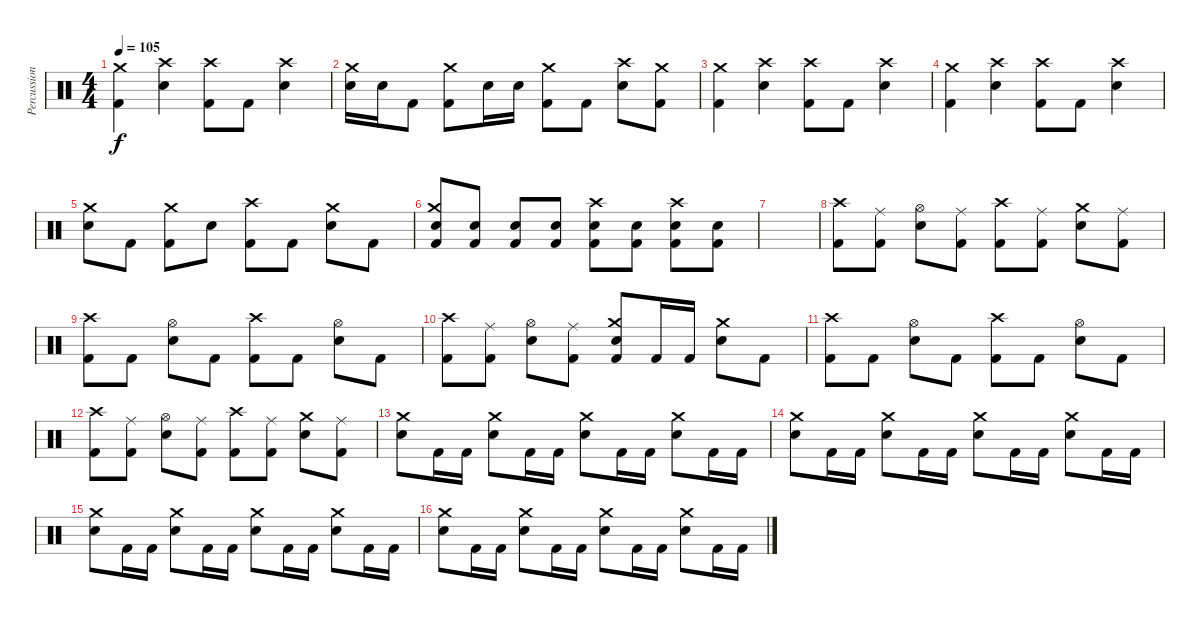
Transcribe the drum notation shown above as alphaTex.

\track ("Percussion" "Percussion") {instrument percussion}
\staff {score}
\articulation defaults
\ts (4 4)
\tempo 105
\clef neutral
\ks c
("Kick (hit) 2" "Crash medium (hit)").4{dy f} ("Electric Snare (hit)" "Crash high (hit)").4 ("Kick (hit) 2" "Crash high (hit)").8 "Kick (hit) 2".8 ("Electric Snare (hit)" "Crash high (hit)").4 |
("Electric Snare (hit)" "Crash medium (hit)").16 "Electric Snare (hit)".16 "Kick (hit) 2".8 ("Kick (hit) 2" "Crash medium (hit)").8 "Electric Snare (hit)".16 "Electric Snare (hit)".16 ("Kick (hit) 2" "Crash medium (hit)").8 "Kick (hit) 2".8 ("Electric Snare (hit)" "Crash high (hit)").8 ("Kick (hit) 2" "Crash medium (hit)").8 |
("Kick (hit) 2" "Crash medium (hit)").4 ("Electric Snare (hit)" "Crash high (hit)").4 ("Kick (hit) 2" "Crash high (hit)").8 "Kick (hit) 2".8 ("Electric Snare (hit)" "Crash high (hit)").4 |
("Kick (hit) 2" "Crash medium (hit)").4 ("Electric Snare (hit)" "Crash high (hit)").4 ("Kick (hit) 2" "Crash high (hit)").8 "Kick (hit) 2".8 ("Electric Snare (hit)" "Crash high (hit)").4 |
("Electric Snare (hit)" "Crash medium (hit)").8 "Kick (hit) 2".8 ("Kick (hit) 2" "Crash medium (hit)").8 "Electric Snare (hit)".8 ("Kick (hit) 2" "Crash high (hit)").8 "Kick (hit) 2".8 ("Electric Snare (hit)" "Crash medium (hit)").8 "Kick (hit) 2".8 |
("Kick (hit) 2" "Electric Snare (hit)" "Crash medium (hit)").8 ("Kick (hit) 2" "Electric Snare (hit)").8 ("Kick (hit) 2" "Electric Snare (hit)").8 ("Kick (hit) 2" "Electric Snare (hit)").8 ("Kick (hit) 2" "Electric Snare (hit)" "Crash high (hit)").8 ("Kick (hit) 2" "Electric Snare (hit)").8 ("Kick (hit) 2" "Electric Snare (hit)" "Crash high (hit)").8 ("Kick (hit) 2" "Electric Snare (hit)").8 |
|
("Kick (hit) 2" "Crash high (hit)").8 ("Kick (hit) 2" "Ride (middle)").8 ("Electric Snare (hit)" "Hi-Hat (open)").8 ("Kick (hit) 2" "Ride (middle)").8 ("Kick (hit) 2" "Crash high (hit)").8 ("Kick (hit) 2" "Ride (middle)").8 ("Electric Snare (hit)" "Crash medium (hit)").8 ("Kick (hit) 2" "Ride (middle)").8 |
("Kick (hit) 2" "Crash high (hit)").8 "Kick (hit) 2".8 ("Electric Snare (hit)" "Hi-Hat (open)").8 "Kick (hit) 2".8 ("Kick (hit) 2" "Crash high (hit)").8 "Kick (hit) 2".8 ("Electric Snare (hit)" "Hi-Hat (open)").8 "Kick (hit) 2".8 |
("Kick (hit) 2" "Crash high (hit)").8 ("Kick (hit) 2" "Ride (middle)").8 ("Electric Snare (hit)" "Hi-Hat (open)").8 ("Kick (hit) 2" "Ride (middle)").8 ("Kick (hit) 2" "Electric Snare (hit)" "Crash medium (hit)").8 "Kick (hit) 2".16 "Kick (hit) 2".16 ("Electric Snare (hit)" "Crash medium (hit)").8 "Kick (hit) 2".8 |
("Kick (hit) 2" "Crash high (hit)").8 "Kick (hit) 2".8 ("Electric Snare (hit)" "Hi-Hat (open)").8 "Kick (hit) 2".8 ("Kick (hit) 2" "Crash high (hit)").8 "Kick (hit) 2".8 ("Electric Snare (hit)" "Hi-Hat (open)").8 "Kick (hit) 2".8 |
("Kick (hit) 2" "Crash high (hit)").8 ("Kick (hit) 2" "Ride (middle)").8 ("Electric Snare (hit)" "Hi-Hat (open)").8 ("Kick (hit) 2" "Ride (middle)").8 ("Kick (hit) 2" "Crash high (hit)").8 ("Kick (hit) 2" "Ride (middle)").8 ("Electric Snare (hit)" "Crash medium (hit)").8 ("Kick (hit) 2" "Ride (middle)").8 |
("Electric Snare (hit)" "Crash medium (hit)").8 "Kick (hit) 2".16 "Kick (hit) 2".16 ("Electric Snare (hit)" "Crash medium (hit)").8 "Kick (hit) 2".16 "Kick (hit) 2".16 ("Electric Snare (hit)" "Crash medium (hit)").8 "Kick (hit) 2".16 "Kick (hit) 2".16 ("Electric Snare (hit)" "Crash medium (hit)").8 "Kick (hit) 2".16 "Kick (hit) 2".16 |
("Electric Snare (hit)" "Crash medium (hit)").8 "Kick (hit) 2".16 "Kick (hit) 2".16 ("Electric Snare (hit)" "Crash medium (hit)").8 "Kick (hit) 2".16 "Kick (hit) 2".16 ("Electric Snare (hit)" "Crash medium (hit)").8 "Kick (hit) 2".16 "Kick (hit) 2".16 ("Electric Snare (hit)" "Crash medium (hit)").8 "Kick (hit) 2".16 "Kick (hit) 2".16 |
("Electric Snare (hit)" "Crash medium (hit)").8 "Kick (hit) 2".16 "Kick (hit) 2".16 ("Electric Snare (hit)" "Crash medium (hit)").8 "Kick (hit) 2".16 "Kick (hit) 2".16 ("Electric Snare (hit)" "Crash medium (hit)").8 "Kick (hit) 2".16 "Kick (hit) 2".16 ("Electric Snare (hit)" "Crash medium (hit)").8 "Kick (hit) 2".16 "Kick (hit) 2".16 |
("Electric Snare (hit)" "Crash medium (hit)").8 "Kick (hit) 2".16 "Kick (hit) 2".16 ("Electric Snare (hit)" "Crash medium (hit)").8 "Kick (hit) 2".16 "Kick (hit) 2".16 ("Electric Snare (hit)" "Crash medium (hit)").8 "Kick (hit) 2".16 "Kick (hit) 2".16 ("Electric Snare (hit)" "Crash medium (hit)").8 "Kick (hit) 2".16 "Kick (hit) 2".16
